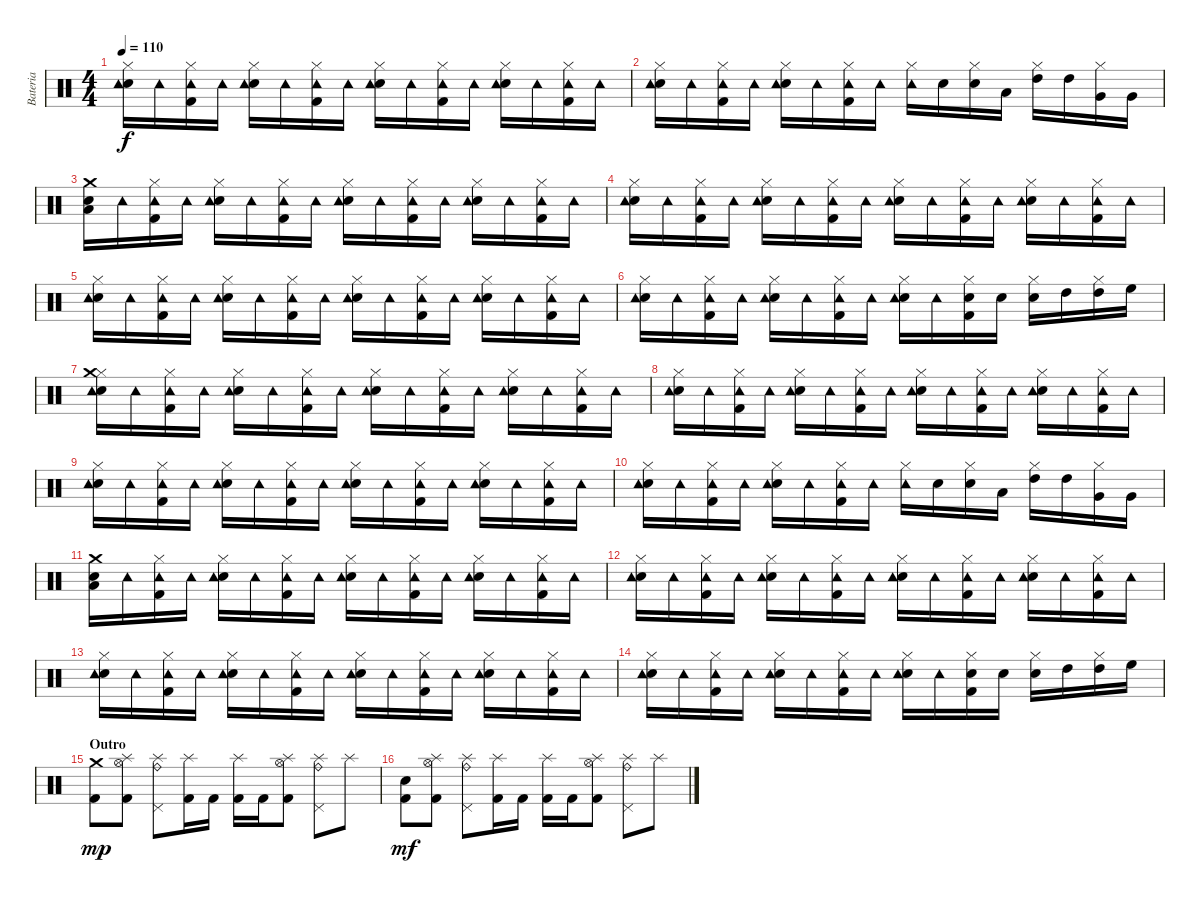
\track ("Bateria" "Bateria") {instrument percussion}
\staff {score}
\articulation defaults
\ts (4 4)
\tempo 110
\clef neutral
\ks c
("Hi-Hat (closed)" "Snare (hit) 2" "Tambourine (hit)").16{dy f} "Tambourine (hit)".16 ("Hi-Hat (closed)" "Kick (hit) 2" "Tambourine (hit)").16 "Tambourine (hit)".16 ("Hi-Hat (closed)" "Snare (hit) 2" "Tambourine (hit)").16 "Tambourine (hit)".16 ("Hi-Hat (closed)" "Kick (hit) 2" "Tambourine (hit)").16 "Tambourine (hit)".16 ("Hi-Hat (closed)" "Snare (hit) 2" "Tambourine (hit)").16 "Tambourine (hit)".16 ("Hi-Hat (closed)" "Kick (hit) 2" "Tambourine (hit)").16 "Tambourine (hit)".16 ("Hi-Hat (closed)" "Snare (hit) 2" "Tambourine (hit)").16 "Tambourine (hit)".16 ("Hi-Hat (closed)" "Kick (hit) 2" "Tambourine (hit)").16 "Tambourine (hit)".16 |
("Hi-Hat (closed)" "Snare (hit) 2" "Tambourine (hit)").16 "Tambourine (hit)".16 ("Hi-Hat (closed)" "Kick (hit) 2" "Tambourine (hit)").16 "Tambourine (hit)".16 ("Hi-Hat (closed)" "Snare (hit) 2" "Tambourine (hit)").16 "Tambourine (hit)".16 ("Hi-Hat (closed)" "Kick (hit) 2" "Tambourine (hit)").16 "Tambourine (hit)".16 ("Hi-Hat (closed)" "Tambourine (hit)").16 "Snare (hit) 2".16 ("Hi-Hat (closed)" "Snare (hit) 2").16 "Low Tom (hit)".16 ("Hi-Hat (closed)" "High Tom (hit)").16 "High Tom (hit)".16 ("Hi-Hat (closed)" "Very Low Tom (hit)").16 "Very Low Tom (hit)".16 |
("Crash medium (hit)" "Snare (hit) 2" "Low Tom (hit)").16 "Tambourine (hit)".16 ("Hi-Hat (closed)" "Kick (hit) 2" "Tambourine (hit)").16 "Tambourine (hit)".16 ("Hi-Hat (closed)" "Snare (hit) 2" "Tambourine (hit)").16 "Tambourine (hit)".16 ("Hi-Hat (closed)" "Kick (hit) 2" "Tambourine (hit)").16 "Tambourine (hit)".16 ("Hi-Hat (closed)" "Snare (hit) 2" "Tambourine (hit)").16 "Tambourine (hit)".16 ("Hi-Hat (closed)" "Kick (hit) 2" "Tambourine (hit)").16 "Tambourine (hit)".16 ("Hi-Hat (closed)" "Snare (hit) 2" "Tambourine (hit)").16 "Tambourine (hit)".16 ("Hi-Hat (closed)" "Kick (hit) 2" "Tambourine (hit)").16 "Tambourine (hit)".16 |
("Hi-Hat (closed)" "Snare (hit) 2" "Tambourine (hit)").16 "Tambourine (hit)".16 ("Hi-Hat (closed)" "Kick (hit) 2" "Tambourine (hit)").16 "Tambourine (hit)".16 ("Hi-Hat (closed)" "Snare (hit) 2" "Tambourine (hit)").16 "Tambourine (hit)".16 ("Hi-Hat (closed)" "Kick (hit) 2" "Tambourine (hit)").16 "Tambourine (hit)".16 ("Hi-Hat (closed)" "Snare (hit) 2" "Tambourine (hit)").16 "Tambourine (hit)".16 ("Hi-Hat (closed)" "Kick (hit) 2" "Tambourine (hit)").16 "Tambourine (hit)".16 ("Hi-Hat (closed)" "Snare (hit) 2" "Tambourine (hit)").16 "Tambourine (hit)".16 ("Hi-Hat (closed)" "Kick (hit) 2" "Tambourine (hit)").16 "Tambourine (hit)".16 |
("Hi-Hat (closed)" "Snare (hit) 2" "Tambourine (hit)").16 "Tambourine (hit)".16 ("Hi-Hat (closed)" "Kick (hit) 2" "Tambourine (hit)").16 "Tambourine (hit)".16 ("Hi-Hat (closed)" "Snare (hit) 2" "Tambourine (hit)").16 "Tambourine (hit)".16 ("Hi-Hat (closed)" "Kick (hit) 2" "Tambourine (hit)").16 "Tambourine (hit)".16 ("Hi-Hat (closed)" "Snare (hit) 2" "Tambourine (hit)").16 "Tambourine (hit)".16 ("Hi-Hat (closed)" "Kick (hit) 2" "Tambourine (hit)").16 "Tambourine (hit)".16 ("Hi-Hat (closed)" "Snare (hit) 2" "Tambourine (hit)").16 "Tambourine (hit)".16 ("Hi-Hat (closed)" "Kick (hit) 2" "Tambourine (hit)").16 "Tambourine (hit)".16 |
("Hi-Hat (closed)" "Snare (hit) 2" "Tambourine (hit)").16 "Tambourine (hit)".16 ("Hi-Hat (closed)" "Kick (hit) 2" "Tambourine (hit)").16 "Tambourine (hit)".16 ("Hi-Hat (closed)" "Snare (hit) 2" "Tambourine (hit)").16 "Tambourine (hit)".16 ("Hi-Hat (closed)" "Kick (hit) 2" "Tambourine (hit)").16 "Tambourine (hit)".16 ("Hi-Hat (closed)" "Snare (hit) 2" "Tambourine (hit)").16 "Tambourine (hit)".16 ("Hi-Hat (closed)" "Kick (hit) 2" "Snare (hit) 2").16 "Snare (hit) 2".16 ("Hi-Hat (closed)" "Snare (hit) 2").16 "High Tom (hit)".16 ("Hi-Hat (closed)" "High Tom (hit)").16 "High Floor Tom (hit)".16 |
("Hi-Hat (closed)" "Snare (hit) 2" "Crash medium (hit)" "Tambourine (hit)").16 "Tambourine (hit)".16 ("Hi-Hat (closed)" "Kick (hit) 2" "Tambourine (hit)").16 "Tambourine (hit)".16 ("Hi-Hat (closed)" "Snare (hit) 2" "Tambourine (hit)").16 "Tambourine (hit)".16 ("Hi-Hat (closed)" "Kick (hit) 2" "Tambourine (hit)").16 "Tambourine (hit)".16 ("Hi-Hat (closed)" "Snare (hit) 2" "Tambourine (hit)").16 "Tambourine (hit)".16 ("Hi-Hat (closed)" "Kick (hit) 2" "Tambourine (hit)").16 "Tambourine (hit)".16 ("Hi-Hat (closed)" "Snare (hit) 2" "Tambourine (hit)").16 "Tambourine (hit)".16 ("Hi-Hat (closed)" "Kick (hit) 2" "Tambourine (hit)").16 "Tambourine (hit)".16 |
("Hi-Hat (closed)" "Snare (hit) 2" "Tambourine (hit)").16 "Tambourine (hit)".16 ("Hi-Hat (closed)" "Kick (hit) 2" "Tambourine (hit)").16 "Tambourine (hit)".16 ("Hi-Hat (closed)" "Snare (hit) 2" "Tambourine (hit)").16 "Tambourine (hit)".16 ("Hi-Hat (closed)" "Kick (hit) 2" "Tambourine (hit)").16 "Tambourine (hit)".16 ("Hi-Hat (closed)" "Snare (hit) 2" "Tambourine (hit)").16 "Tambourine (hit)".16 ("Hi-Hat (closed)" "Kick (hit) 2" "Tambourine (hit)").16 "Tambourine (hit)".16 ("Hi-Hat (closed)" "Snare (hit) 2" "Tambourine (hit)").16 "Tambourine (hit)".16 ("Hi-Hat (closed)" "Kick (hit) 2" "Tambourine (hit)").16 "Tambourine (hit)".16 |
("Hi-Hat (closed)" "Snare (hit) 2" "Tambourine (hit)").16 "Tambourine (hit)".16 ("Hi-Hat (closed)" "Kick (hit) 2" "Tambourine (hit)").16 "Tambourine (hit)".16 ("Hi-Hat (closed)" "Snare (hit) 2" "Tambourine (hit)").16 "Tambourine (hit)".16 ("Hi-Hat (closed)" "Kick (hit) 2" "Tambourine (hit)").16 "Tambourine (hit)".16 ("Hi-Hat (closed)" "Snare (hit) 2" "Tambourine (hit)").16 "Tambourine (hit)".16 ("Hi-Hat (closed)" "Kick (hit) 2" "Tambourine (hit)").16 "Tambourine (hit)".16 ("Hi-Hat (closed)" "Snare (hit) 2" "Tambourine (hit)").16 "Tambourine (hit)".16 ("Hi-Hat (closed)" "Kick (hit) 2" "Tambourine (hit)").16 "Tambourine (hit)".16 |
("Hi-Hat (closed)" "Snare (hit) 2" "Tambourine (hit)").16 "Tambourine (hit)".16 ("Hi-Hat (closed)" "Kick (hit) 2" "Tambourine (hit)").16 "Tambourine (hit)".16 ("Hi-Hat (closed)" "Snare (hit) 2" "Tambourine (hit)").16 "Tambourine (hit)".16 ("Hi-Hat (closed)" "Kick (hit) 2" "Tambourine (hit)").16 "Tambourine (hit)".16 ("Hi-Hat (closed)" "Tambourine (hit)").16 "Snare (hit) 2".16 ("Hi-Hat (closed)" "Snare (hit) 2").16 "Low Tom (hit)".16 ("Hi-Hat (closed)" "High Tom (hit)").16 "High Tom (hit)".16 ("Hi-Hat (closed)" "Very Low Tom (hit)").16 "Very Low Tom (hit)".16 |
("Crash medium (hit)" "Snare (hit) 2" "Low Tom (hit)").16 "Tambourine (hit)".16 ("Hi-Hat (closed)" "Kick (hit) 2" "Tambourine (hit)").16 "Tambourine (hit)".16 ("Hi-Hat (closed)" "Snare (hit) 2" "Tambourine (hit)").16 "Tambourine (hit)".16 ("Hi-Hat (closed)" "Kick (hit) 2" "Tambourine (hit)").16 "Tambourine (hit)".16 ("Hi-Hat (closed)" "Snare (hit) 2" "Tambourine (hit)").16 "Tambourine (hit)".16 ("Hi-Hat (closed)" "Kick (hit) 2" "Tambourine (hit)").16 "Tambourine (hit)".16 ("Hi-Hat (closed)" "Snare (hit) 2" "Tambourine (hit)").16 "Tambourine (hit)".16 ("Hi-Hat (closed)" "Kick (hit) 2" "Tambourine (hit)").16 "Tambourine (hit)".16 |
("Hi-Hat (closed)" "Snare (hit) 2" "Tambourine (hit)").16 "Tambourine (hit)".16 ("Hi-Hat (closed)" "Kick (hit) 2" "Tambourine (hit)").16 "Tambourine (hit)".16 ("Hi-Hat (closed)" "Snare (hit) 2" "Tambourine (hit)").16 "Tambourine (hit)".16 ("Hi-Hat (closed)" "Kick (hit) 2" "Tambourine (hit)").16 "Tambourine (hit)".16 ("Hi-Hat (closed)" "Snare (hit) 2" "Tambourine (hit)").16 "Tambourine (hit)".16 ("Hi-Hat (closed)" "Kick (hit) 2" "Tambourine (hit)").16 "Tambourine (hit)".16 ("Hi-Hat (closed)" "Snare (hit) 2" "Tambourine (hit)").16 "Tambourine (hit)".16 ("Hi-Hat (closed)" "Kick (hit) 2" "Tambourine (hit)").16 "Tambourine (hit)".16 |
("Hi-Hat (closed)" "Snare (hit) 2" "Tambourine (hit)").16 "Tambourine (hit)".16 ("Hi-Hat (closed)" "Kick (hit) 2" "Tambourine (hit)").16 "Tambourine (hit)".16 ("Hi-Hat (closed)" "Snare (hit) 2" "Tambourine (hit)").16 "Tambourine (hit)".16 ("Hi-Hat (closed)" "Kick (hit) 2" "Tambourine (hit)").16 "Tambourine (hit)".16 ("Hi-Hat (closed)" "Snare (hit) 2" "Tambourine (hit)").16 "Tambourine (hit)".16 ("Hi-Hat (closed)" "Kick (hit) 2" "Tambourine (hit)").16 "Tambourine (hit)".16 ("Hi-Hat (closed)" "Snare (hit) 2" "Tambourine (hit)").16 "Tambourine (hit)".16 ("Hi-Hat (closed)" "Kick (hit) 2" "Tambourine (hit)").16 "Tambourine (hit)".16 |
("Hi-Hat (closed)" "Snare (hit) 2" "Tambourine (hit)").16 "Tambourine (hit)".16 ("Hi-Hat (closed)" "Kick (hit) 2" "Tambourine (hit)").16 "Tambourine (hit)".16 ("Hi-Hat (closed)" "Snare (hit) 2" "Tambourine (hit)").16 "Tambourine (hit)".16 ("Hi-Hat (closed)" "Kick (hit) 2" "Tambourine (hit)").16 "Tambourine (hit)".16 ("Hi-Hat (closed)" "Snare (hit) 2" "Tambourine (hit)").16 "Tambourine (hit)".16 ("Hi-Hat (closed)" "Kick (hit) 2" "Snare (hit) 2").16 "Snare (hit) 2".16 ("Hi-Hat (closed)" "Snare (hit) 2").16 "High Tom (hit)".16 ("Hi-Hat (closed)" "High Tom (hit)").16 "High Floor Tom (hit)".16 |
\section ("" "Outro")
("Crash medium (hit)" "Kick (hit) 2").8{dy mp} ("Splash (hit)" "Kick (hit) 2" "Hi-Hat (open)").8 ("Splash (hit)" "Ride (bell)" "Pedal Hi-Hat (hit)").8 ("Splash (hit)" "Kick (hit) 2").16 "Kick (hit) 2".16 ("Splash (hit)" "Kick (hit) 2").16 "Kick (hit) 2".16 ("Splash (hit)" "Kick (hit) 2" "Hi-Hat (open)").8 ("Splash (hit)" "Pedal Hi-Hat (hit)" "Ride (bell)").8 "Splash (hit)".8 |
("Snare (hit)" "Kick (hit) 2").8{dy mf} ("Splash (hit)" "Kick (hit) 2" "Hi-Hat (open)").8 ("Splash (hit)" "Ride (bell)" "Pedal Hi-Hat (hit)").8 ("Splash (hit)" "Kick (hit) 2").16 "Kick (hit) 2".16 ("Splash (hit)" "Kick (hit) 2").16 "Kick (hit) 2".16 ("Splash (hit)" "Kick (hit) 2" "Hi-Hat (open)").8 ("Splash (hit)" "Pedal Hi-Hat (hit)" "Ride (bell)").8 "Splash (hit)".8
